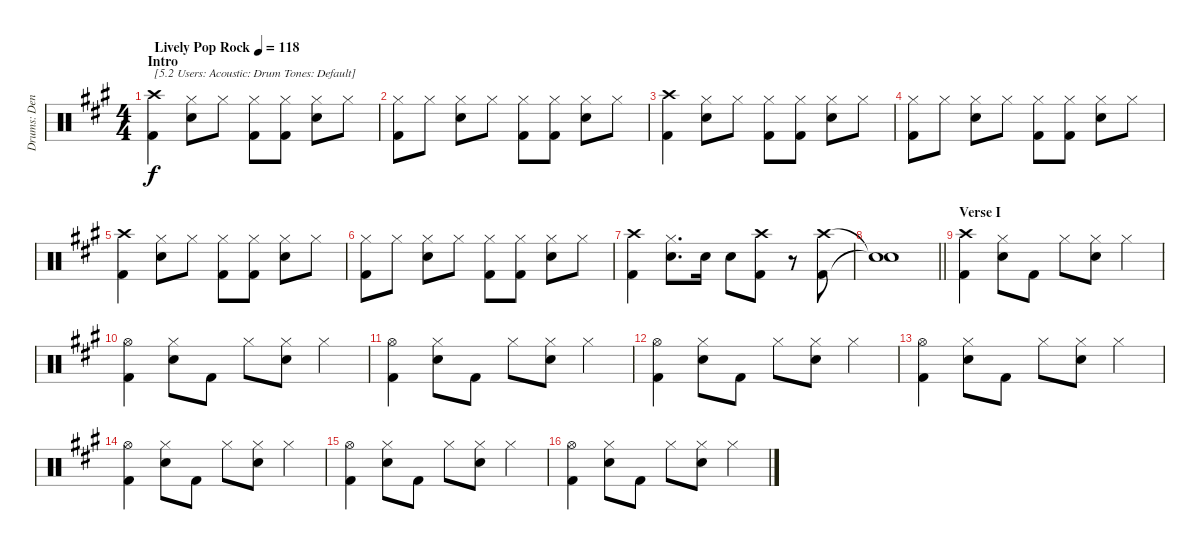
\track ("Drums: Denny" "Drums: Den") {instrument percussion}
\staff {score}
\articulation defaults
\ts (4 4)
\section ("" "Intro")
\tempo (118 "Lively Pop Rock")
\clef neutral
\ks a
("Crash high (hit)" "Kick (hit) 2").4{txt "[5.2 Users: Acoustic: Drum Tones: Default]" dy f} ("Hi-Hat (closed)" "Electric Snare (hit)").8 "Hi-Hat (closed)".8 ("Hi-Hat (closed)" "Kick (hit) 2").8 ("Hi-Hat (closed)" "Kick (hit) 2").8 ("Hi-Hat (closed)" "Electric Snare (hit)").8 "Hi-Hat (closed)".8 |
("Hi-Hat (closed)" "Kick (hit) 2").8 "Hi-Hat (closed)".8 ("Hi-Hat (closed)" "Electric Snare (hit)").8 "Hi-Hat (closed)".8 ("Hi-Hat (closed)" "Kick (hit) 2").8 ("Hi-Hat (closed)" "Kick (hit) 2").8 ("Hi-Hat (closed)" "Electric Snare (hit)").8 "Hi-Hat (closed)".8 |
("Crash high (hit)" "Kick (hit) 2").4 ("Hi-Hat (closed)" "Electric Snare (hit)").8 "Hi-Hat (closed)".8 ("Hi-Hat (closed)" "Kick (hit) 2").8 ("Hi-Hat (closed)" "Kick (hit) 2").8 ("Hi-Hat (closed)" "Electric Snare (hit)").8 "Hi-Hat (closed)".8 |
("Hi-Hat (closed)" "Kick (hit) 2").8 "Hi-Hat (closed)".8 ("Hi-Hat (closed)" "Electric Snare (hit)").8 "Hi-Hat (closed)".8 ("Hi-Hat (closed)" "Kick (hit) 2").8 ("Hi-Hat (closed)" "Kick (hit) 2").8 ("Hi-Hat (closed)" "Electric Snare (hit)").8 "Hi-Hat (closed)".8 |
("Crash high (hit)" "Kick (hit) 2").4 ("Hi-Hat (closed)" "Electric Snare (hit)").8 "Hi-Hat (closed)".8 ("Hi-Hat (closed)" "Kick (hit) 2").8 ("Hi-Hat (closed)" "Kick (hit) 2").8 ("Hi-Hat (closed)" "Electric Snare (hit)").8 "Hi-Hat (closed)".8 |
("Hi-Hat (closed)" "Kick (hit) 2").8 "Hi-Hat (closed)".8 ("Hi-Hat (closed)" "Electric Snare (hit)").8 "Hi-Hat (closed)".8 ("Hi-Hat (closed)" "Kick (hit) 2").8 ("Hi-Hat (closed)" "Kick (hit) 2").8 ("Hi-Hat (closed)" "Electric Snare (hit)").8 "Hi-Hat (closed)".8 |
("Crash high (hit)" "Kick (hit) 2").4 ("Hi-Hat (closed)" "Electric Snare (hit)").8{d} "Electric Snare (hit)".16 "Electric Snare (hit)".8 ("Crash high (hit)" "Kick (hit) 2").8 r.8 ("Crash high (hit)" "Kick (hit) 2").8 |
\barLineRight lightlight
("Snare (hit)"{t} "Snare (hit)"{t}).1 |
\section ("" "Verse I")
("Crash high (hit)" "Kick (hit) 2").4 ("Hi-Hat (closed)" "Electric Snare (hit)").8 "Kick (hit) 2".8 "Hi-Hat (closed)".8 ("Hi-Hat (closed)" "Electric Snare (hit)").8 "Hi-Hat (closed)".4 |
("Hi-Hat (open)" "Kick (hit) 2").4 ("Hi-Hat (closed)" "Electric Snare (hit)").8 "Kick (hit) 2".8 "Hi-Hat (closed)".8 ("Hi-Hat (closed)" "Electric Snare (hit)").8 "Hi-Hat (closed)".4 |
("Hi-Hat (open)" "Kick (hit) 2").4 ("Hi-Hat (closed)" "Electric Snare (hit)").8 "Kick (hit) 2".8 "Hi-Hat (closed)".8 ("Hi-Hat (closed)" "Electric Snare (hit)").8 "Hi-Hat (closed)".4 |
("Hi-Hat (open)" "Kick (hit) 2").4 ("Hi-Hat (closed)" "Electric Snare (hit)").8 "Kick (hit) 2".8 "Hi-Hat (closed)".8 ("Hi-Hat (closed)" "Electric Snare (hit)").8 "Hi-Hat (closed)".4 |
("Hi-Hat (open)" "Kick (hit) 2").4 ("Hi-Hat (closed)" "Electric Snare (hit)").8 "Kick (hit) 2".8 "Hi-Hat (closed)".8 ("Hi-Hat (closed)" "Electric Snare (hit)").8 "Hi-Hat (closed)".4 |
("Hi-Hat (open)" "Kick (hit) 2").4 ("Hi-Hat (closed)" "Electric Snare (hit)").8 "Kick (hit) 2".8 "Hi-Hat (closed)".8 ("Hi-Hat (closed)" "Electric Snare (hit)").8 "Hi-Hat (closed)".4 |
("Hi-Hat (open)" "Kick (hit) 2").4 ("Hi-Hat (closed)" "Electric Snare (hit)").8 "Kick (hit) 2".8 "Hi-Hat (closed)".8 ("Hi-Hat (closed)" "Electric Snare (hit)").8 "Hi-Hat (closed)".4 |
("Hi-Hat (open)" "Kick (hit) 2").4 ("Hi-Hat (closed)" "Electric Snare (hit)").8 "Kick (hit) 2".8 "Hi-Hat (closed)".8 ("Hi-Hat (closed)" "Electric Snare (hit)").8 "Hi-Hat (closed)".4
